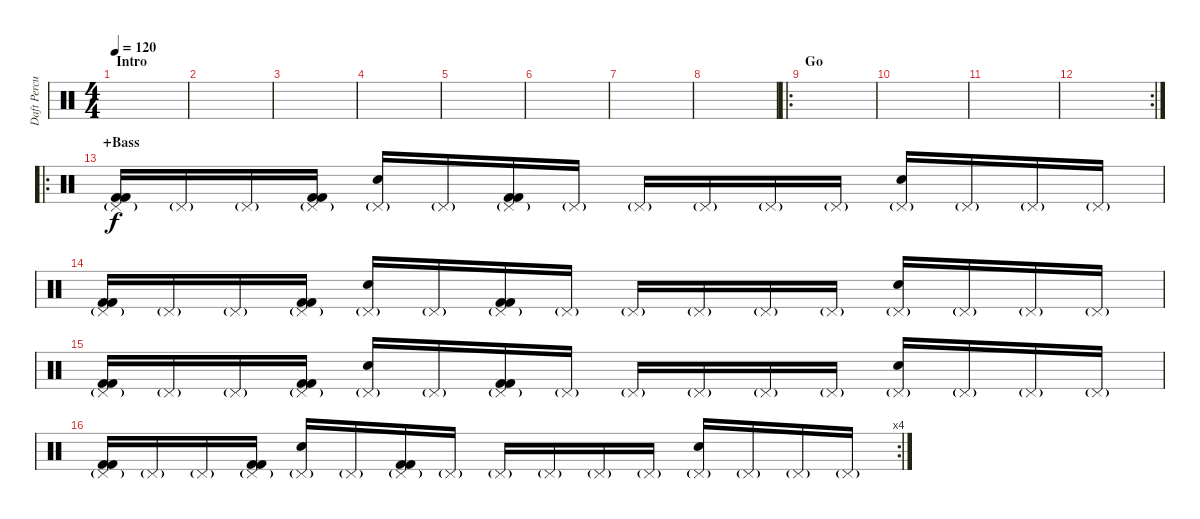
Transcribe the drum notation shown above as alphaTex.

\track ("Daft Percussion 2" "Daft Percu") {instrument percussion}
\staff {score}
\articulation defaults
\ts (4 4)
\section ("" "Intro")
\tempo 120
\clef neutral
\ks c
|
|
|
|
|
|
|
|
\ro
\section ("" "Go")
|
|
|
\rc 2
|
\ro
\section ("" "+Bass")
("Pedal Hi-Hat (hit)"{g} "Kick (hit) 2" "Kick (hit) 2").16 "Pedal Hi-Hat (hit)"{g}.16 "Pedal Hi-Hat (hit)"{g}.16 ("Pedal Hi-Hat (hit)"{g} "Kick (hit) 2" "Kick (hit) 2").16 ("Pedal Hi-Hat (hit)"{g} "Snare (hit) 2").16 "Pedal Hi-Hat (hit)"{g}.16 ("Pedal Hi-Hat (hit)"{g} "Kick (hit) 2" "Kick (hit) 2").16 "Pedal Hi-Hat (hit)"{g}.16 "Pedal Hi-Hat (hit)"{g}.16 "Pedal Hi-Hat (hit)"{g}.16 "Pedal Hi-Hat (hit)"{g}.16 "Pedal Hi-Hat (hit)"{g}.16 ("Pedal Hi-Hat (hit)"{g} "Snare (hit) 2").16 "Pedal Hi-Hat (hit)"{g}.16 "Pedal Hi-Hat (hit)"{g}.16 "Pedal Hi-Hat (hit)"{g}.16 |
("Pedal Hi-Hat (hit)"{g} "Kick (hit) 2" "Kick (hit) 2").16 "Pedal Hi-Hat (hit)"{g}.16 "Pedal Hi-Hat (hit)"{g}.16 ("Pedal Hi-Hat (hit)"{g} "Kick (hit) 2" "Kick (hit) 2").16 ("Pedal Hi-Hat (hit)"{g} "Snare (hit) 2").16 "Pedal Hi-Hat (hit)"{g}.16 ("Pedal Hi-Hat (hit)"{g} "Kick (hit) 2" "Kick (hit) 2").16 "Pedal Hi-Hat (hit)"{g}.16 "Pedal Hi-Hat (hit)"{g}.16 "Pedal Hi-Hat (hit)"{g}.16 "Pedal Hi-Hat (hit)"{g}.16 "Pedal Hi-Hat (hit)"{g}.16 ("Pedal Hi-Hat (hit)"{g} "Snare (hit) 2").16 "Pedal Hi-Hat (hit)"{g}.16 "Pedal Hi-Hat (hit)"{g}.16 "Pedal Hi-Hat (hit)"{g}.16 |
("Pedal Hi-Hat (hit)"{g} "Kick (hit) 2" "Kick (hit) 2").16 "Pedal Hi-Hat (hit)"{g}.16 "Pedal Hi-Hat (hit)"{g}.16 ("Pedal Hi-Hat (hit)"{g} "Kick (hit) 2" "Kick (hit) 2").16 ("Pedal Hi-Hat (hit)"{g} "Snare (hit) 2").16 "Pedal Hi-Hat (hit)"{g}.16 ("Pedal Hi-Hat (hit)"{g} "Kick (hit) 2" "Kick (hit) 2").16 "Pedal Hi-Hat (hit)"{g}.16 "Pedal Hi-Hat (hit)"{g}.16 "Pedal Hi-Hat (hit)"{g}.16 "Pedal Hi-Hat (hit)"{g}.16 "Pedal Hi-Hat (hit)"{g}.16 ("Pedal Hi-Hat (hit)"{g} "Snare (hit) 2").16 "Pedal Hi-Hat (hit)"{g}.16 "Pedal Hi-Hat (hit)"{g}.16 "Pedal Hi-Hat (hit)"{g}.16 |
\rc 4
("Pedal Hi-Hat (hit)"{g} "Kick (hit) 2" "Kick (hit) 2").16 "Pedal Hi-Hat (hit)"{g}.16 "Pedal Hi-Hat (hit)"{g}.16 ("Pedal Hi-Hat (hit)"{g} "Kick (hit) 2" "Kick (hit) 2").16 ("Pedal Hi-Hat (hit)"{g} "Snare (hit) 2").16 "Pedal Hi-Hat (hit)"{g}.16 ("Pedal Hi-Hat (hit)"{g} "Kick (hit) 2" "Kick (hit) 2").16 "Pedal Hi-Hat (hit)"{g}.16 "Pedal Hi-Hat (hit)"{g}.16 "Pedal Hi-Hat (hit)"{g}.16 "Pedal Hi-Hat (hit)"{g}.16 "Pedal Hi-Hat (hit)"{g}.16 ("Pedal Hi-Hat (hit)"{g} "Snare (hit) 2").16 "Pedal Hi-Hat (hit)"{g}.16 "Pedal Hi-Hat (hit)"{g}.16 "Pedal Hi-Hat (hit)"{g}.16
